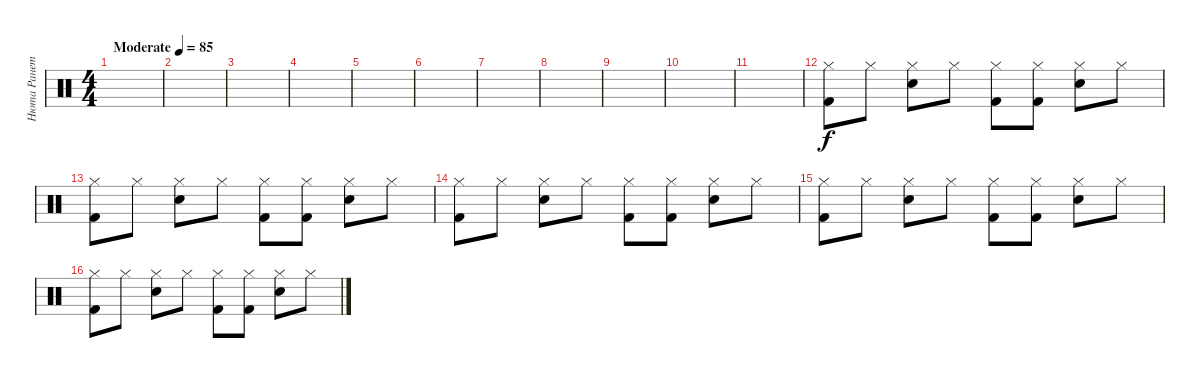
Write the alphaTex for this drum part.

\track ("Нюта Ранетка" "Нюта Ранет") {instrument percussion}
\staff {score}
\articulation defaults
\ts (4 4)
\tempo (85 "Moderate")
\clef neutral
\ks c
|
|
|
|
|
|
|
|
|
|
|
("Hi-Hat (closed)" "Kick (hit) 2").8 "Hi-Hat (closed)".8 ("Hi-Hat (closed)" "Electric Snare (hit)").8 "Hi-Hat (closed)".8 ("Hi-Hat (closed)" "Kick (hit) 2").8 ("Hi-Hat (closed)" "Kick (hit) 2").8 ("Hi-Hat (closed)" "Electric Snare (hit)").8 "Hi-Hat (closed)".8 |
("Hi-Hat (closed)" "Kick (hit) 2").8 "Hi-Hat (closed)".8 ("Hi-Hat (closed)" "Electric Snare (hit)").8 "Hi-Hat (closed)".8 ("Hi-Hat (closed)" "Kick (hit) 2").8 ("Hi-Hat (closed)" "Kick (hit) 2").8 ("Hi-Hat (closed)" "Electric Snare (hit)").8 "Hi-Hat (closed)".8 |
("Hi-Hat (closed)" "Kick (hit) 2").8 "Hi-Hat (closed)".8 ("Hi-Hat (closed)" "Electric Snare (hit)").8 "Hi-Hat (closed)".8 ("Hi-Hat (closed)" "Kick (hit) 2").8 ("Hi-Hat (closed)" "Kick (hit) 2").8 ("Hi-Hat (closed)" "Electric Snare (hit)").8 "Hi-Hat (closed)".8 |
("Hi-Hat (closed)" "Kick (hit) 2").8 "Hi-Hat (closed)".8 ("Hi-Hat (closed)" "Electric Snare (hit)").8 "Hi-Hat (closed)".8 ("Hi-Hat (closed)" "Kick (hit) 2").8 ("Hi-Hat (closed)" "Kick (hit) 2").8 ("Hi-Hat (closed)" "Electric Snare (hit)").8 "Hi-Hat (closed)".8 |
("Hi-Hat (closed)" "Kick (hit) 2").8 "Hi-Hat (closed)".8 ("Hi-Hat (closed)" "Electric Snare (hit)").8 "Hi-Hat (closed)".8 ("Hi-Hat (closed)" "Kick (hit) 2").8 ("Hi-Hat (closed)" "Kick (hit) 2").8 ("Hi-Hat (closed)" "Electric Snare (hit)").8 "Hi-Hat (closed)".8
